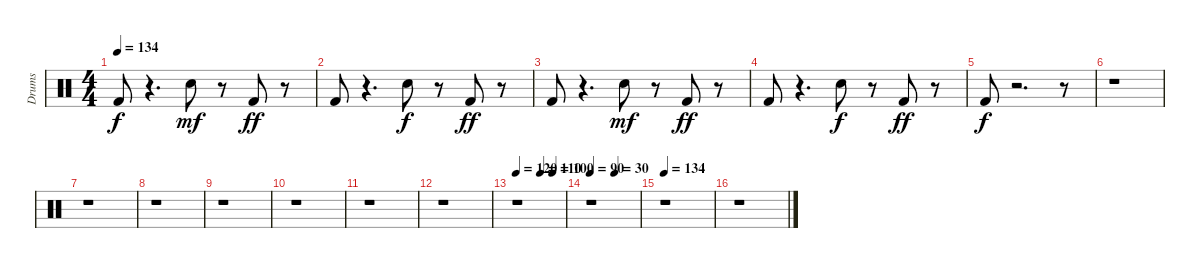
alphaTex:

\track ("Drums" "Drums") {instrument percussion}
\staff {score}
\articulation defaults
\ts (4 4)
\tempo 134
\clef neutral
\ks c "Kick (hit) 2".8{dy f}
r.4{d} "Electric Snare (hit)".8{dy mf} r.8 "Kick (hit) 2".8{dy ff} r.8 |
"Kick (hit) 2".8 r.4{d} "Electric Snare (hit)".8{dy f} r.8 "Kick (hit) 2".8{dy ff} r.8 |
"Kick (hit) 2".8 r.4{d} "Electric Snare (hit)".8{dy mf} r.8 "Kick (hit) 2".8{dy ff} r.8 |
"Kick (hit) 2".8 r.4{d} "Electric Snare (hit)".8{dy f} r.8 "Kick (hit) 2".8{dy ff} r.8 |
"Kick (hit) 2".8{dy f} r.2{d} r.8 |
r.1 |
r.1 |
r.1 |
r.1 |
r.1 |
r.1 |
r.1 |
\tempo 120
\tempo (110 0.5)
\tempo (100 0.75)
r.1 |
\tempo 90
\tempo (30 0.5)
r.1 |
\tempo 134
r.1 |
r.1
